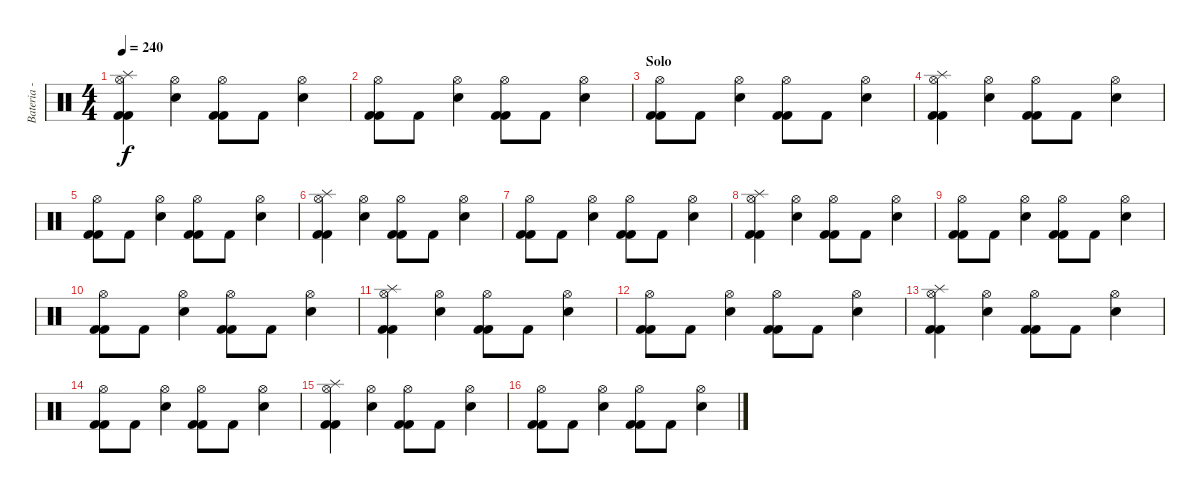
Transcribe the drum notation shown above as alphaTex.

\track ("Bateria - Larzon" "Bateria - ") {instrument percussion}
\staff {score}
\articulation defaults
\ts (4 4)
\tempo 240
\clef neutral
\ks c
("Kick (hit) 2" "Kick (hit) 2" "Splash (hit)" "Hi-Hat (open)").4{dy f volume 16} ("Snare (hit) 2" "Hi-Hat (open)").4 ("Kick (hit) 2" "Hi-Hat (open)" "Kick (hit) 2").8{volume 12} "Kick (hit) 2".8 ("Snare (hit) 2" "Hi-Hat (open)").4{volume 12} |
("Kick (hit) 2" "Kick (hit) 2" "Hi-Hat (open)").8{volume 16} "Kick (hit) 2".8 ("Snare (hit) 2" "Hi-Hat (open)").4 ("Kick (hit) 2" "Kick (hit) 2" "Hi-Hat (open)").8{volume 12} "Kick (hit) 2".8 ("Snare (hit) 2" "Hi-Hat (open)").4{volume 12} |
\section ("" "Solo")
("Kick (hit) 2" "Kick (hit) 2" "Hi-Hat (open)").8{volume 16} "Kick (hit) 2".8 ("Snare (hit) 2" "Hi-Hat (open)").4 ("Kick (hit) 2" "Kick (hit) 2" "Hi-Hat (open)").8{volume 12} "Kick (hit) 2".8 ("Snare (hit) 2" "Hi-Hat (open)").4{volume 12} |
("Kick (hit) 2" "Kick (hit) 2" "Splash (hit)" "Hi-Hat (open)").4{volume 16} ("Snare (hit) 2" "Hi-Hat (open)").4 ("Kick (hit) 2" "Hi-Hat (open)" "Kick (hit) 2").8{volume 12} "Kick (hit) 2".8 ("Snare (hit) 2" "Hi-Hat (open)").4{volume 12} |
("Kick (hit) 2" "Kick (hit) 2" "Hi-Hat (open)").8{volume 16} "Kick (hit) 2".8 ("Snare (hit) 2" "Hi-Hat (open)").4 ("Kick (hit) 2" "Kick (hit) 2" "Hi-Hat (open)").8{volume 12} "Kick (hit) 2".8 ("Snare (hit) 2" "Hi-Hat (open)").4{volume 12} |
("Kick (hit) 2" "Kick (hit) 2" "Splash (hit)" "Hi-Hat (open)").4{volume 16} ("Snare (hit) 2" "Hi-Hat (open)").4 ("Kick (hit) 2" "Hi-Hat (open)" "Kick (hit) 2").8{volume 12} "Kick (hit) 2".8 ("Snare (hit) 2" "Hi-Hat (open)").4{volume 12} |
("Kick (hit) 2" "Kick (hit) 2" "Hi-Hat (open)").8{volume 16} "Kick (hit) 2".8 ("Snare (hit) 2" "Hi-Hat (open)").4 ("Kick (hit) 2" "Kick (hit) 2" "Hi-Hat (open)").8{volume 12} "Kick (hit) 2".8 ("Snare (hit) 2" "Hi-Hat (open)").4{volume 12} |
("Kick (hit) 2" "Kick (hit) 2" "Splash (hit)" "Hi-Hat (open)").4{volume 16} ("Snare (hit) 2" "Hi-Hat (open)").4 ("Kick (hit) 2" "Hi-Hat (open)" "Kick (hit) 2").8{volume 12} "Kick (hit) 2".8 ("Snare (hit) 2" "Hi-Hat (open)").4{volume 12} |
("Kick (hit) 2" "Kick (hit) 2" "Hi-Hat (open)").8{volume 16} "Kick (hit) 2".8 ("Snare (hit) 2" "Hi-Hat (open)").4 ("Kick (hit) 2" "Kick (hit) 2" "Hi-Hat (open)").8{volume 12} "Kick (hit) 2".8 ("Snare (hit) 2" "Hi-Hat (open)").4{volume 12} |
("Kick (hit) 2" "Kick (hit) 2" "Hi-Hat (open)").8{volume 16} "Kick (hit) 2".8 ("Snare (hit) 2" "Hi-Hat (open)").4 ("Kick (hit) 2" "Kick (hit) 2" "Hi-Hat (open)").8{volume 12} "Kick (hit) 2".8 ("Snare (hit) 2" "Hi-Hat (open)").4{volume 12} |
("Kick (hit) 2" "Kick (hit) 2" "Splash (hit)" "Hi-Hat (open)").4{volume 16} ("Snare (hit) 2" "Hi-Hat (open)").4 ("Kick (hit) 2" "Hi-Hat (open)" "Kick (hit) 2").8{volume 12} "Kick (hit) 2".8 ("Snare (hit) 2" "Hi-Hat (open)").4{volume 12} |
("Kick (hit) 2" "Kick (hit) 2" "Hi-Hat (open)").8{volume 16} "Kick (hit) 2".8 ("Snare (hit) 2" "Hi-Hat (open)").4 ("Kick (hit) 2" "Kick (hit) 2" "Hi-Hat (open)").8{volume 12} "Kick (hit) 2".8 ("Snare (hit) 2" "Hi-Hat (open)").4{volume 12} |
("Kick (hit) 2" "Kick (hit) 2" "Splash (hit)" "Hi-Hat (open)").4{volume 16} ("Snare (hit) 2" "Hi-Hat (open)").4 ("Kick (hit) 2" "Hi-Hat (open)" "Kick (hit) 2").8{volume 12} "Kick (hit) 2".8 ("Snare (hit) 2" "Hi-Hat (open)").4{volume 12} |
("Kick (hit) 2" "Kick (hit) 2" "Hi-Hat (open)").8{volume 16} "Kick (hit) 2".8 ("Snare (hit) 2" "Hi-Hat (open)").4 ("Kick (hit) 2" "Kick (hit) 2" "Hi-Hat (open)").8{volume 12} "Kick (hit) 2".8 ("Snare (hit) 2" "Hi-Hat (open)").4{volume 12} |
("Kick (hit) 2" "Kick (hit) 2" "Splash (hit)" "Hi-Hat (open)").4{volume 16} ("Snare (hit) 2" "Hi-Hat (open)").4 ("Kick (hit) 2" "Hi-Hat (open)" "Kick (hit) 2").8{volume 12} "Kick (hit) 2".8 ("Snare (hit) 2" "Hi-Hat (open)").4{volume 12} |
("Kick (hit) 2" "Kick (hit) 2" "Hi-Hat (open)").8{volume 16} "Kick (hit) 2".8 ("Snare (hit) 2" "Hi-Hat (open)").4 ("Kick (hit) 2" "Kick (hit) 2" "Hi-Hat (open)").8{volume 12} "Kick (hit) 2".8 ("Snare (hit) 2" "Hi-Hat (open)").4{volume 12}
